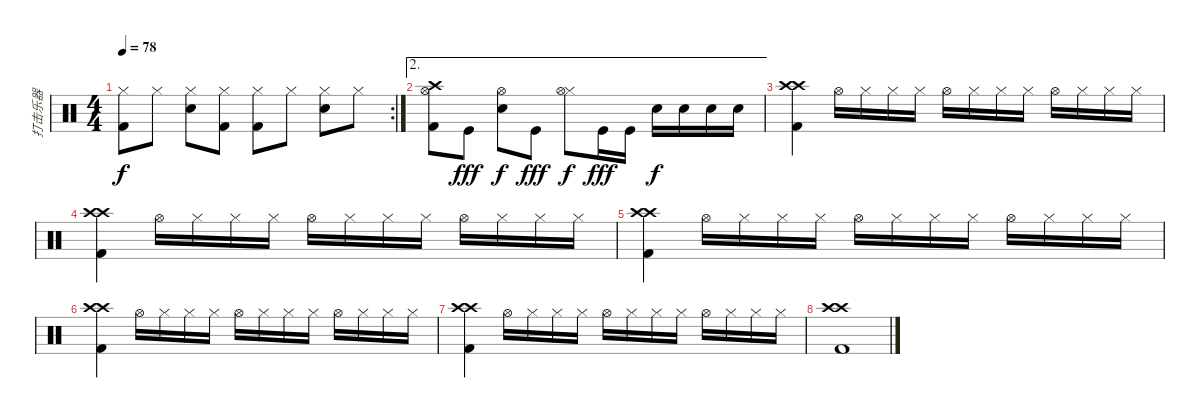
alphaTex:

\track ("打击乐器" "打击乐器") {instrument percussion}
\staff {score}
\articulation defaults
\rc 2
\ts (4 4)
\tempo 78
\clef neutral
\ks c
("Hi-Hat (closed)" "Kick (hit) 2").8{dy f} "Hi-Hat (closed)".8 ("Hi-Hat (closed)" "Electric Snare (hit)").8 ("Hi-Hat (closed)" "Kick (hit) 2").8 ("Hi-Hat (closed)" "Kick (hit) 2").8 "Hi-Hat (closed)".8 ("Hi-Hat (closed)" "Electric Snare (hit)").8 "Hi-Hat (closed)".8 |
\ae 2
("Crash high (hit)" "Hi-Hat (open)" "Kick (hit) 2").8 "Kick (hit)".8{dy fff} ("Electric Snare (hit)" "Hi-Hat (open)").8{dy f} "Kick (hit)".8{dy fff} ("Hi-Hat (closed)" "Hi-Hat (open)").8{dy f} "Kick (hit)".16{dy fff} "Kick (hit)".16 "Electric Snare (hit)".16{dy f} "Electric Snare (hit)".16 "Electric Snare (hit)".16 "Electric Snare (hit)".16 |
("Crash high (hit)" "Crash high (hit)" "Kick (hit) 2").4 "Hi-Hat (open)".16 "Hi-Hat (closed)".16 "Hi-Hat (closed)".16 "Hi-Hat (closed)".16 "Hi-Hat (open)".16 "Hi-Hat (closed)".16 "Hi-Hat (closed)".16 "Hi-Hat (closed)".16 "Hi-Hat (open)".16 "Hi-Hat (closed)".16 "Hi-Hat (closed)".16 "Hi-Hat (closed)".16 |
("Crash high (hit)" "Crash high (hit)" "Kick (hit) 2").4 "Hi-Hat (open)".16 "Hi-Hat (closed)".16 "Hi-Hat (closed)".16 "Hi-Hat (closed)".16 "Hi-Hat (open)".16 "Hi-Hat (closed)".16 "Hi-Hat (closed)".16 "Hi-Hat (closed)".16 "Hi-Hat (open)".16 "Hi-Hat (closed)".16 "Hi-Hat (closed)".16 "Hi-Hat (closed)".16 |
("Crash high (hit)" "Crash high (hit)" "Kick (hit) 2").4 "Hi-Hat (open)".16 "Hi-Hat (closed)".16 "Hi-Hat (closed)".16 "Hi-Hat (closed)".16 "Hi-Hat (open)".16 "Hi-Hat (closed)".16 "Hi-Hat (closed)".16 "Hi-Hat (closed)".16 "Hi-Hat (open)".16 "Hi-Hat (closed)".16 "Hi-Hat (closed)".16 "Hi-Hat (closed)".16 |
("Crash high (hit)" "Crash high (hit)" "Kick (hit) 2").4 "Hi-Hat (open)".16 "Hi-Hat (closed)".16 "Hi-Hat (closed)".16 "Hi-Hat (closed)".16 "Hi-Hat (open)".16 "Hi-Hat (closed)".16 "Hi-Hat (closed)".16 "Hi-Hat (closed)".16 "Hi-Hat (open)".16 "Hi-Hat (closed)".16 "Hi-Hat (closed)".16 "Hi-Hat (closed)".16 |
("Crash high (hit)" "Crash high (hit)" "Kick (hit) 2").4 "Hi-Hat (open)".16 "Hi-Hat (closed)".16 "Hi-Hat (closed)".16 "Hi-Hat (closed)".16 "Hi-Hat (open)".16 "Hi-Hat (closed)".16 "Hi-Hat (closed)".16 "Hi-Hat (closed)".16 "Hi-Hat (open)".16 "Hi-Hat (closed)".16 "Hi-Hat (closed)".16 "Hi-Hat (closed)".16 |
("Crash high (hit)" "Crash high (hit)" "Kick (hit) 2").1
